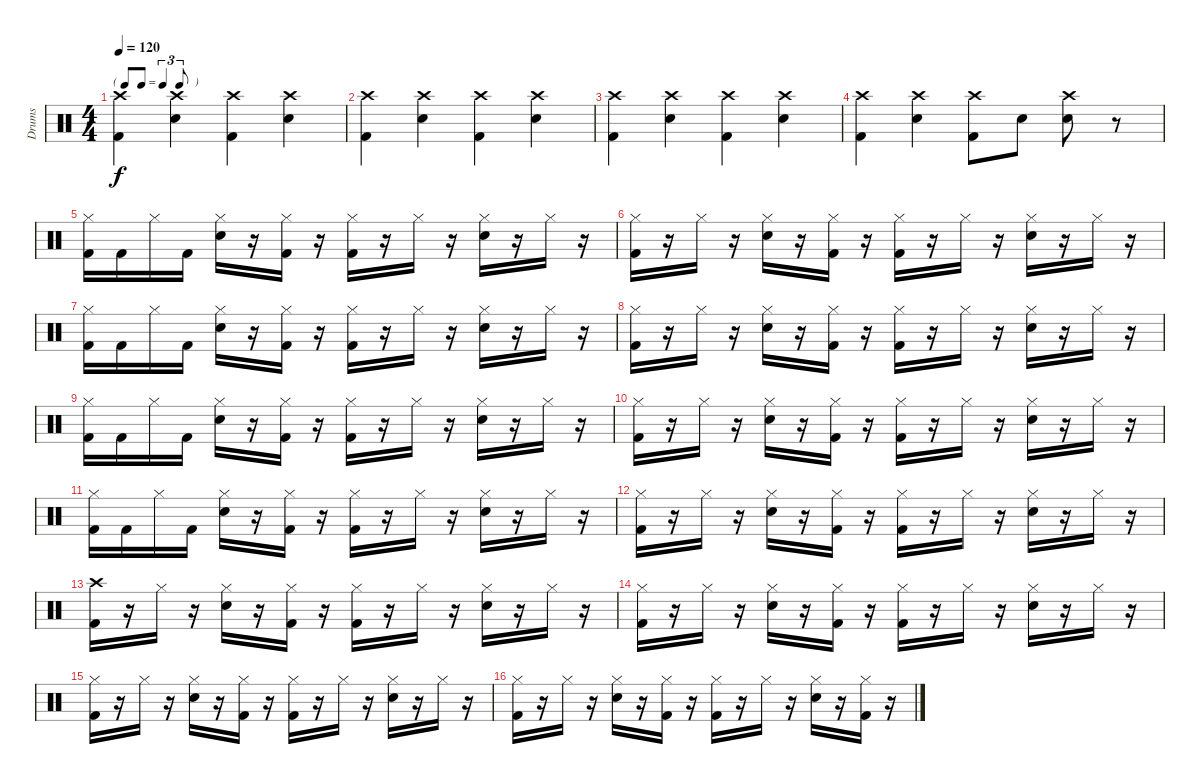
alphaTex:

\track ("Drums" "Drums") {instrument percussion}
\staff {score}
\articulation defaults
\ts (4 4)
\tf triplet8th
\tempo 120
\clef neutral
\ks c
("Crash high (hit)" "Kick (hit) 2").4{dy f} ("Crash high (hit)" "Electric Snare (hit)").4 ("Crash high (hit)" "Kick (hit) 2").4 ("Crash high (hit)" "Electric Snare (hit)").4 |
("Crash high (hit)" "Kick (hit) 2").4 ("Crash high (hit)" "Electric Snare (hit)").4 ("Crash high (hit)" "Kick (hit) 2").4 ("Crash high (hit)" "Electric Snare (hit)").4 |
("Crash high (hit)" "Kick (hit) 2").4 ("Crash high (hit)" "Electric Snare (hit)").4 ("Crash high (hit)" "Kick (hit) 2").4 ("Crash high (hit)" "Electric Snare (hit)").4 |
("Crash high (hit)" "Kick (hit) 2").4 ("Crash high (hit)" "Electric Snare (hit)").4 ("Crash high (hit)" "Kick (hit) 2").8 "Electric Snare (hit)".8 ("Crash high (hit)" "Electric Snare (hit)").8 r.8 |
("Hi-Hat (closed)" "Kick (hit) 2").16 "Kick (hit) 2".16 "Hi-Hat (closed)".16 "Kick (hit) 2".16 ("Hi-Hat (closed)" "Electric Snare (hit)").16 r.16 ("Hi-Hat (closed)" "Kick (hit) 2").16 r.16 ("Hi-Hat (closed)" "Kick (hit) 2").16 r.16 "Hi-Hat (closed)".16 r.16 ("Hi-Hat (closed)" "Electric Snare (hit)").16 r.16 "Hi-Hat (closed)".16 r.16 |
("Hi-Hat (closed)" "Kick (hit) 2").16 r.16 "Hi-Hat (closed)".16 r.16 ("Hi-Hat (closed)" "Electric Snare (hit)").16 r.16 ("Hi-Hat (closed)" "Kick (hit) 2").16 r.16 ("Hi-Hat (closed)" "Kick (hit) 2").16 r.16 "Hi-Hat (closed)".16 r.16 ("Hi-Hat (closed)" "Electric Snare (hit)").16 r.16 "Hi-Hat (closed)".16 r.16 |
("Hi-Hat (closed)" "Kick (hit) 2").16 "Kick (hit) 2".16 "Hi-Hat (closed)".16 "Kick (hit) 2".16 ("Hi-Hat (closed)" "Electric Snare (hit)").16 r.16 ("Hi-Hat (closed)" "Kick (hit) 2").16 r.16 ("Hi-Hat (closed)" "Kick (hit) 2").16 r.16 "Hi-Hat (closed)".16 r.16 ("Hi-Hat (closed)" "Electric Snare (hit)").16 r.16 "Hi-Hat (closed)".16 r.16 |
("Hi-Hat (closed)" "Kick (hit) 2").16 r.16 "Hi-Hat (closed)".16 r.16 ("Hi-Hat (closed)" "Electric Snare (hit)").16 r.16 ("Hi-Hat (closed)" "Kick (hit) 2").16 r.16 ("Hi-Hat (closed)" "Kick (hit) 2").16 r.16 "Hi-Hat (closed)".16 r.16 ("Hi-Hat (closed)" "Electric Snare (hit)").16 r.16 "Hi-Hat (closed)".16 r.16 |
("Hi-Hat (closed)" "Kick (hit) 2").16 "Kick (hit) 2".16 "Hi-Hat (closed)".16 "Kick (hit) 2".16 ("Hi-Hat (closed)" "Electric Snare (hit)").16 r.16 ("Hi-Hat (closed)" "Kick (hit) 2").16 r.16 ("Hi-Hat (closed)" "Kick (hit) 2").16 r.16 "Hi-Hat (closed)".16 r.16 ("Hi-Hat (closed)" "Electric Snare (hit)").16 r.16 "Hi-Hat (closed)".16 r.16 |
("Hi-Hat (closed)" "Kick (hit) 2").16 r.16 "Hi-Hat (closed)".16 r.16 ("Hi-Hat (closed)" "Electric Snare (hit)").16 r.16 ("Hi-Hat (closed)" "Kick (hit) 2").16 r.16 ("Hi-Hat (closed)" "Kick (hit) 2").16 r.16 "Hi-Hat (closed)".16 r.16 ("Hi-Hat (closed)" "Electric Snare (hit)").16 r.16 "Hi-Hat (closed)".16 r.16 |
("Hi-Hat (closed)" "Kick (hit) 2").16 "Kick (hit) 2".16 "Hi-Hat (closed)".16 "Kick (hit) 2".16 ("Hi-Hat (closed)" "Electric Snare (hit)").16 r.16 ("Hi-Hat (closed)" "Kick (hit) 2").16 r.16 ("Hi-Hat (closed)" "Kick (hit) 2").16 r.16 "Hi-Hat (closed)".16 r.16 ("Hi-Hat (closed)" "Electric Snare (hit)").16 r.16 "Hi-Hat (closed)".16 r.16 |
("Hi-Hat (closed)" "Kick (hit) 2").16 r.16 "Hi-Hat (closed)".16 r.16 ("Hi-Hat (closed)" "Electric Snare (hit)").16 r.16 ("Hi-Hat (closed)" "Kick (hit) 2").16 r.16 ("Hi-Hat (closed)" "Kick (hit) 2").16 r.16 "Hi-Hat (closed)".16 r.16 ("Hi-Hat (closed)" "Electric Snare (hit)").16 r.16 "Hi-Hat (closed)".16 r.16 |
("Crash high (hit)" "Kick (hit) 2").16 r.16 "Hi-Hat (closed)".16 r.16 ("Hi-Hat (closed)" "Electric Snare (hit)").16 r.16 ("Hi-Hat (closed)" "Kick (hit) 2").16 r.16 ("Hi-Hat (closed)" "Kick (hit) 2").16 r.16 "Hi-Hat (closed)".16 r.16 ("Hi-Hat (closed)" "Electric Snare (hit)").16 r.16 "Hi-Hat (closed)".16 r.16 |
("Hi-Hat (closed)" "Kick (hit) 2").16 r.16 "Hi-Hat (closed)".16 r.16 ("Hi-Hat (closed)" "Electric Snare (hit)").16 r.16 ("Hi-Hat (closed)" "Kick (hit) 2").16 r.16 ("Hi-Hat (closed)" "Kick (hit) 2").16 r.16 "Hi-Hat (closed)".16 r.16 ("Hi-Hat (closed)" "Electric Snare (hit)").16 r.16 "Hi-Hat (closed)".16 r.16 |
("Hi-Hat (closed)" "Kick (hit) 2").16 r.16 "Hi-Hat (closed)".16 r.16 ("Hi-Hat (closed)" "Electric Snare (hit)").16 r.16 ("Hi-Hat (closed)" "Kick (hit) 2").16 r.16 ("Hi-Hat (closed)" "Kick (hit) 2").16 r.16 "Hi-Hat (closed)".16 r.16 ("Hi-Hat (closed)" "Electric Snare (hit)").16 r.16 "Hi-Hat (closed)".16 r.16 |
("Hi-Hat (closed)" "Kick (hit) 2").16 r.16 "Hi-Hat (closed)".16 r.16 ("Hi-Hat (closed)" "Electric Snare (hit)").16 r.16 ("Hi-Hat (closed)" "Kick (hit) 2").16 r.16 ("Hi-Hat (closed)" "Kick (hit) 2").16 r.16 "Hi-Hat (closed)".16 r.16 ("Hi-Hat (closed)" "Electric Snare (hit)").16 r.16 ("Hi-Hat (closed)" "Kick (hit) 2").16 r.16
